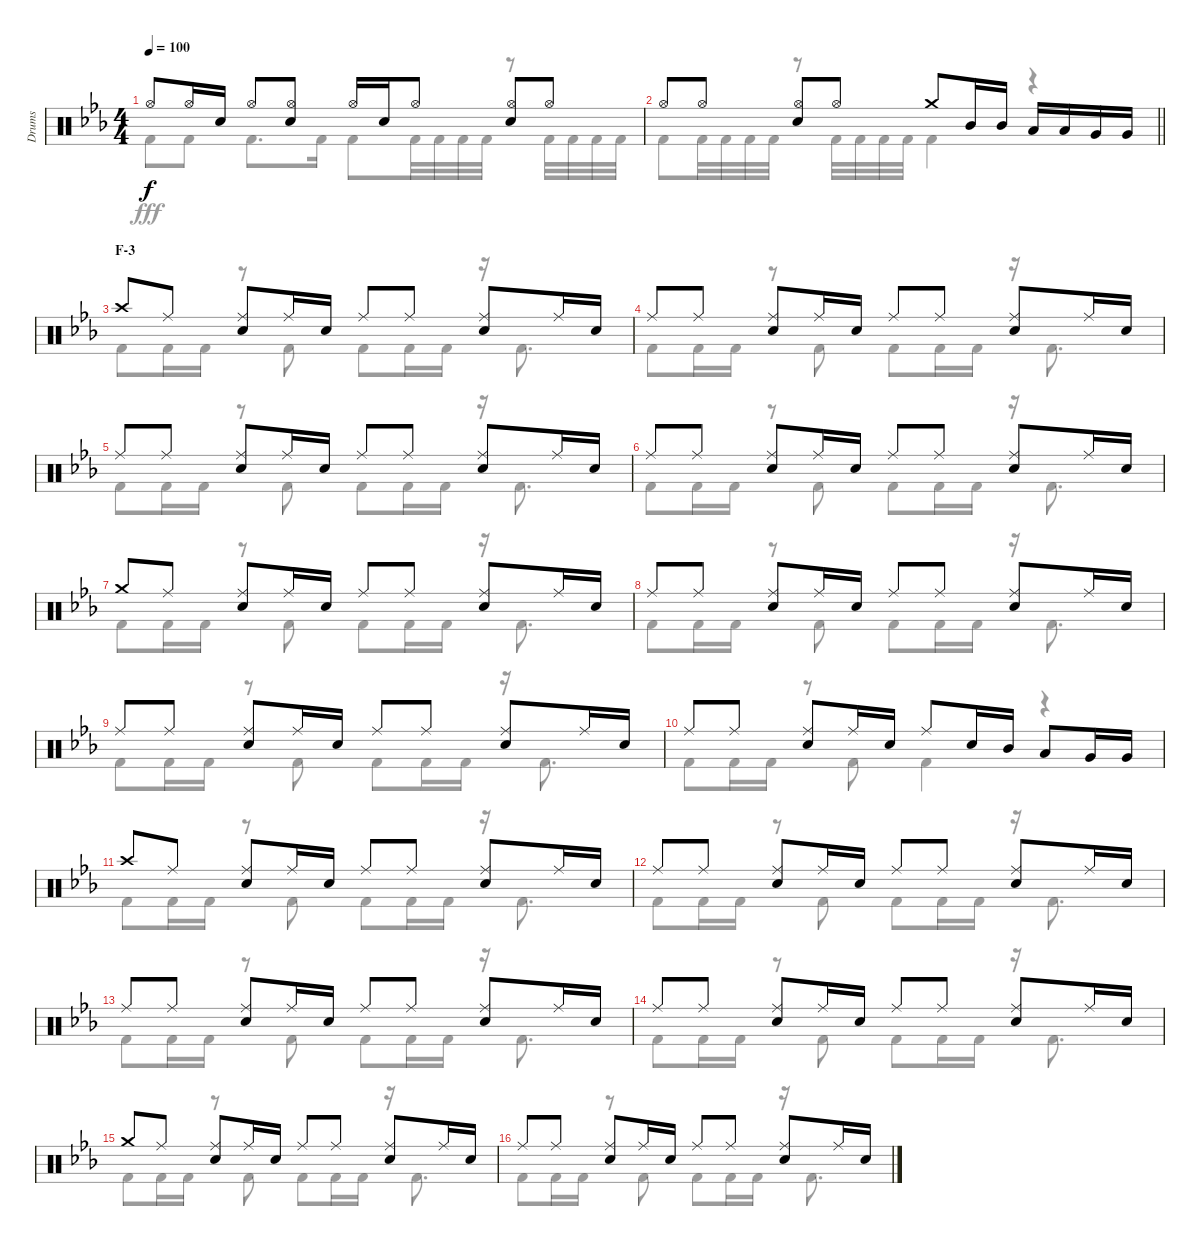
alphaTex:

\track ("Drums" "Drums") {instrument percussion}
\staff {score}
\articulation defaults
\voice
\ts (4 4)
\tempo 100
\clef neutral
\ks eb "Hi-Hat (open)".8{dy f} "Hi-Hat (open)".16 "Snare (hit) 2".16 "Hi-Hat (open)".8
("Hi-Hat (open)" "Snare (hit) 2").8 "Hi-Hat (open)".16 "Snare (hit) 2".16 "Hi-Hat (open)".8 ("Hi-Hat (open)" "Snare (hit) 2").8 "Hi-Hat (open)".8 |
\barLineRight lightlight "Hi-Hat (open)".8 "Hi-Hat (open)".8
("Hi-Hat (open)" "Snare (hit) 2").8 "Hi-Hat (open)".8 "Crash medium (hit)".8 "Mid Tom (hit)".16 "Mid Tom (hit)".16 "Low Tom (hit)".16 "Low Tom (hit)".16 "Very Low Tom (hit)".16 "Very Low Tom (hit)".16 |
\section ("" "F-3")
"Crash high (hit)".8 "Ride (middle)".8 ("Ride (middle)" "Snare (hit) 2").8 "Ride (middle)".16 "Snare (hit) 2".16 "Ride (middle)".8 "Ride (middle)".8 ("Ride (middle)" "Snare (hit) 2").8 "Ride (middle)".16 "Snare (hit) 2".16 |
"Ride (middle)".8 "Ride (middle)".8 ("Ride (middle)" "Snare (hit) 2").8 "Ride (middle)".16 "Snare (hit) 2".16 "Ride (middle)".8 "Ride (middle)".8 ("Ride (middle)" "Snare (hit) 2").8 "Ride (middle)".16 "Snare (hit) 2".16 |
"Ride (middle)".8 "Ride (middle)".8 ("Ride (middle)" "Snare (hit) 2").8 "Ride (middle)".16 "Snare (hit) 2".16 "Ride (middle)".8 "Ride (middle)".8 ("Ride (middle)" "Snare (hit) 2").8 "Ride (middle)".16 "Snare (hit) 2".16 |
"Ride (middle)".8 "Ride (middle)".8 ("Ride (middle)" "Snare (hit) 2").8 "Ride (middle)".16 "Snare (hit) 2".16 "Ride (middle)".8 "Ride (middle)".8 ("Ride (middle)" "Snare (hit) 2").8 "Ride (middle)".16 "Snare (hit) 2".16 |
"Crash medium (hit)".8 "Ride (middle)".8 ("Ride (middle)" "Snare (hit) 2").8 "Ride (middle)".16 "Snare (hit) 2".16 "Ride (middle)".8 "Ride (middle)".8 ("Ride (middle)" "Snare (hit) 2").8 "Ride (middle)".16 "Snare (hit) 2".16 |
"Ride (middle)".8 "Ride (middle)".8 ("Ride (middle)" "Snare (hit) 2").8 "Ride (middle)".16 "Snare (hit) 2".16 "Ride (middle)".8 "Ride (middle)".8 ("Ride (middle)" "Snare (hit) 2").8 "Ride (middle)".16 "Snare (hit) 2".16 |
"Ride (middle)".8 "Ride (middle)".8 ("Ride (middle)" "Snare (hit) 2").8 "Ride (middle)".16 "Snare (hit) 2".16 "Ride (middle)".8 "Ride (middle)".8 ("Ride (middle)" "Snare (hit) 2").8 "Ride (middle)".16 "Snare (hit) 2".16 |
"Ride (middle)".8 "Ride (middle)".8 ("Ride (middle)" "Snare (hit) 2").8 "Ride (middle)".16 "Snare (hit) 2".16 "Ride (middle)".8 "Snare (hit) 2".16 "Mid Tom (hit)".16 "Low Tom (hit)".8 "Very Low Tom (hit)".16 "Very Low Tom (hit)".16 |
"Crash high (hit)".8 "Ride (middle)".8 ("Ride (middle)" "Snare (hit) 2").8 "Ride (middle)".16 "Snare (hit) 2".16 "Ride (middle)".8 "Ride (middle)".8 ("Ride (middle)" "Snare (hit) 2").8 "Ride (middle)".16 "Snare (hit) 2".16 |
"Ride (middle)".8 "Ride (middle)".8 ("Ride (middle)" "Snare (hit) 2").8 "Ride (middle)".16 "Snare (hit) 2".16 "Ride (middle)".8 "Ride (middle)".8 ("Ride (middle)" "Snare (hit) 2").8 "Ride (middle)".16 "Snare (hit) 2".16 |
"Ride (middle)".8 "Ride (middle)".8 ("Ride (middle)" "Snare (hit) 2").8 "Ride (middle)".16 "Snare (hit) 2".16 "Ride (middle)".8 "Ride (middle)".8 ("Ride (middle)" "Snare (hit) 2").8 "Ride (middle)".16 "Snare (hit) 2".16 |
"Ride (middle)".8 "Ride (middle)".8 ("Ride (middle)" "Snare (hit) 2").8 "Ride (middle)".16 "Snare (hit) 2".16 "Ride (middle)".8 "Ride (middle)".8 ("Ride (middle)" "Snare (hit) 2").8 "Ride (middle)".16 "Snare (hit) 2".16 |
"Crash medium (hit)".8 "Ride (middle)".8 ("Ride (middle)" "Snare (hit) 2").8 "Ride (middle)".16 "Snare (hit) 2".16 "Ride (middle)".8 "Ride (middle)".8 ("Ride (middle)" "Snare (hit) 2").8 "Ride (middle)".16 "Snare (hit) 2".16 |
"Ride (middle)".8 "Ride (middle)".8 ("Ride (middle)" "Snare (hit) 2").8 "Ride (middle)".16 "Snare (hit) 2".16 "Ride (middle)".8 "Ride (middle)".8 ("Ride (middle)" "Snare (hit) 2").8 "Ride (middle)".16 "Snare (hit) 2".16
\voice
\clef neutral
\ottava regular
\simile none
\ks eb "Kick (hit) 2".8{dy fff} "Kick (hit) 2".8 "Kick (hit) 2".8{d} "Kick (hit) 2".16 "Kick (hit) 2".8 "Kick (hit) 2".32 "Kick (hit) 2".32 "Kick (hit) 2".32 "Kick (hit) 2".32
r.8 "Kick (hit) 2".32 "Kick (hit) 2".32 "Kick (hit) 2".32 "Kick (hit) 2".32 |
\barLineRight lightlight "Kick (hit) 2".8 "Kick (hit) 2".32 "Kick (hit) 2".32 "Kick (hit) 2".32 "Kick (hit) 2".32
r.8 "Kick (hit) 2".32 "Kick (hit) 2".32 "Kick (hit) 2".32 "Kick (hit) 2".32 "Kick (hit) 2".4 r.4 |
"Kick (hit) 2".8 "Kick (hit) 2".16 "Kick (hit) 2".16 r.8 "Kick (hit) 2".8 "Kick (hit) 2".8 "Kick (hit) 2".16 "Kick (hit) 2".16 r.16 "Kick (hit) 2".8{d} |
"Kick (hit) 2".8 "Kick (hit) 2".16 "Kick (hit) 2".16 r.8 "Kick (hit) 2".8 "Kick (hit) 2".8 "Kick (hit) 2".16 "Kick (hit) 2".16 r.16 "Kick (hit) 2".8{d} |
"Kick (hit) 2".8 "Kick (hit) 2".16 "Kick (hit) 2".16 r.8 "Kick (hit) 2".8 "Kick (hit) 2".8 "Kick (hit) 2".16 "Kick (hit) 2".16 r.16 "Kick (hit) 2".8{d} |
"Kick (hit) 2".8 "Kick (hit) 2".16 "Kick (hit) 2".16 r.8 "Kick (hit) 2".8 "Kick (hit) 2".8 "Kick (hit) 2".16 "Kick (hit) 2".16 r.16 "Kick (hit) 2".8{d} |
"Kick (hit) 2".8 "Kick (hit) 2".16 "Kick (hit) 2".16 r.8 "Kick (hit) 2".8 "Kick (hit) 2".8 "Kick (hit) 2".16 "Kick (hit) 2".16 r.16 "Kick (hit) 2".8{d} |
"Kick (hit) 2".8 "Kick (hit) 2".16 "Kick (hit) 2".16 r.8 "Kick (hit) 2".8 "Kick (hit) 2".8 "Kick (hit) 2".16 "Kick (hit) 2".16 r.16 "Kick (hit) 2".8{d} |
"Kick (hit) 2".8 "Kick (hit) 2".16 "Kick (hit) 2".16 r.8 "Kick (hit) 2".8 "Kick (hit) 2".8 "Kick (hit) 2".16 "Kick (hit) 2".16 r.16 "Kick (hit) 2".8{d} |
"Kick (hit) 2".8 "Kick (hit) 2".16 "Kick (hit) 2".16 r.8 "Kick (hit) 2".8 "Kick (hit) 2".4 r.4 |
"Kick (hit) 2".8 "Kick (hit) 2".16 "Kick (hit) 2".16 r.8 "Kick (hit) 2".8 "Kick (hit) 2".8 "Kick (hit) 2".16 "Kick (hit) 2".16 r.16 "Kick (hit) 2".8{d} |
"Kick (hit) 2".8 "Kick (hit) 2".16 "Kick (hit) 2".16 r.8 "Kick (hit) 2".8 "Kick (hit) 2".8 "Kick (hit) 2".16 "Kick (hit) 2".16 r.16 "Kick (hit) 2".8{d} |
"Kick (hit) 2".8 "Kick (hit) 2".16 "Kick (hit) 2".16 r.8 "Kick (hit) 2".8 "Kick (hit) 2".8 "Kick (hit) 2".16 "Kick (hit) 2".16 r.16 "Kick (hit) 2".8{d} |
"Kick (hit) 2".8 "Kick (hit) 2".16 "Kick (hit) 2".16 r.8 "Kick (hit) 2".8 "Kick (hit) 2".8 "Kick (hit) 2".16 "Kick (hit) 2".16 r.16 "Kick (hit) 2".8{d} |
"Kick (hit) 2".8 "Kick (hit) 2".16 "Kick (hit) 2".16 r.8 "Kick (hit) 2".8 "Kick (hit) 2".8 "Kick (hit) 2".16 "Kick (hit) 2".16 r.16 "Kick (hit) 2".8{d} |
"Kick (hit) 2".8 "Kick (hit) 2".16 "Kick (hit) 2".16 r.8 "Kick (hit) 2".8 "Kick (hit) 2".8 "Kick (hit) 2".16 "Kick (hit) 2".16 r.16 "Kick (hit) 2".8{d}
